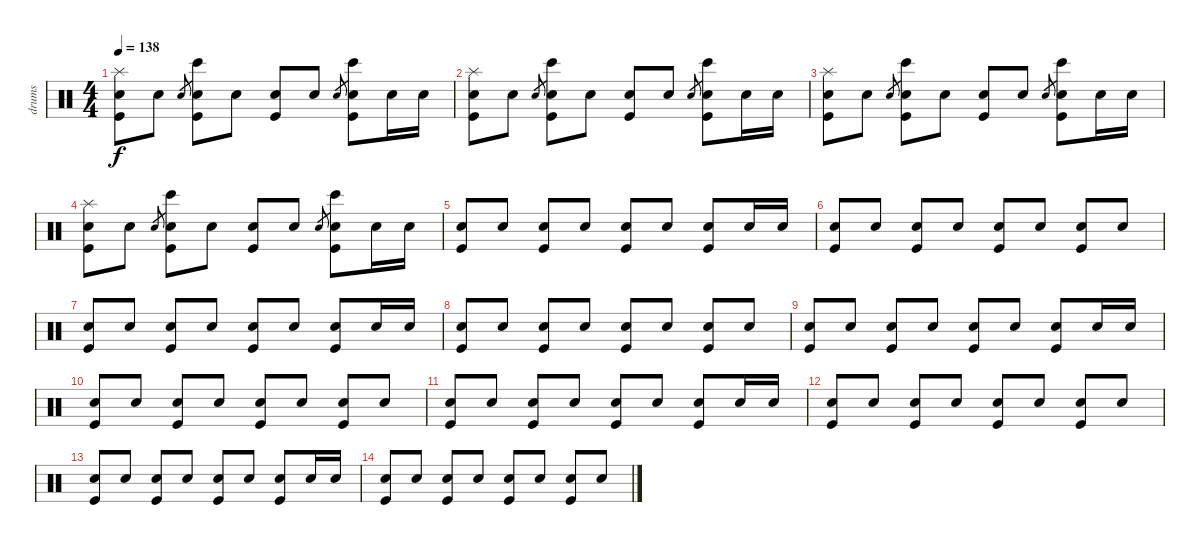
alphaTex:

\track ("drums" "drums") {instrument percussion}
\staff {score}
\articulation defaults
\ts (4 4)
\tempo 138
\clef neutral
\ks c
("Splash (hit)" "Snare (hit) 2" "Kick (hit)").8{dy f volume 11} "Snare (hit) 2".8 "Snare (hit)".8{gr} ("Bongo High (hit)" "Snare (hit) 2" "Kick (hit)").8 "Snare (hit) 2".8 ("Snare (hit) 2" "Kick (hit)").8 "Snare (hit) 2".8 "Snare (hit)".8{gr} ("Bongo High (hit)" "Snare (hit) 2" "Kick (hit)").8 "Snare (hit) 2".16 "Snare (hit) 2".16 |
("Splash (hit)" "Snare (hit) 2" "Kick (hit)").8{volume 11} "Snare (hit) 2".8 "Snare (hit)".8{gr} ("Bongo High (hit)" "Snare (hit) 2" "Kick (hit)").8 "Snare (hit) 2".8 ("Snare (hit) 2" "Kick (hit)").8 "Snare (hit) 2".8 "Snare (hit)".8{gr} ("Bongo High (hit)" "Snare (hit) 2" "Kick (hit)").8 "Snare (hit) 2".16 "Snare (hit) 2".16 |
("Splash (hit)" "Snare (hit) 2" "Kick (hit)").8{volume 11} "Snare (hit) 2".8 "Snare (hit)".8{gr} ("Bongo High (hit)" "Snare (hit) 2" "Kick (hit)").8 "Snare (hit) 2".8 ("Snare (hit) 2" "Kick (hit)").8 "Snare (hit) 2".8 "Snare (hit)".8{gr} ("Bongo High (hit)" "Snare (hit) 2" "Kick (hit)").8 "Snare (hit) 2".16 "Snare (hit) 2".16 |
("Splash (hit)" "Snare (hit) 2" "Kick (hit)").8{volume 11} "Snare (hit) 2".8 "Snare (hit)".8{gr} ("Bongo High (hit)" "Snare (hit) 2" "Kick (hit)").8 "Snare (hit) 2".8 ("Snare (hit) 2" "Kick (hit)").8 "Snare (hit) 2".8 "Snare (hit)".8{gr} ("Bongo High (hit)" "Snare (hit) 2" "Kick (hit)").8 "Snare (hit) 2".16 "Snare (hit) 2".16 |
("Snare (hit) 2" "Kick (hit)").8 "Snare (hit) 2".8 ("Snare (hit) 2" "Kick (hit)").8 "Snare (hit) 2".8 ("Snare (hit) 2" "Kick (hit)").8 "Snare (hit) 2".8 ("Snare (hit) 2" "Kick (hit)").8 "Snare (hit) 2".16{volume 11} "Snare (hit) 2".16 |
("Snare (hit) 2" "Kick (hit)").8 "Snare (hit) 2".8 ("Snare (hit) 2" "Kick (hit)").8 "Snare (hit) 2".8 ("Snare (hit) 2" "Kick (hit)").8 "Snare (hit) 2".8 ("Snare (hit) 2" "Kick (hit)").8 "Snare (hit) 2".8 |
("Snare (hit) 2" "Kick (hit)").8 "Snare (hit) 2".8 ("Snare (hit) 2" "Kick (hit)").8 "Snare (hit) 2".8 ("Snare (hit) 2" "Kick (hit)").8 "Snare (hit) 2".8 ("Snare (hit) 2" "Kick (hit)").8 "Snare (hit) 2".16{volume 11} "Snare (hit) 2".16 |
("Snare (hit) 2" "Kick (hit)").8 "Snare (hit) 2".8 ("Snare (hit) 2" "Kick (hit)").8 "Snare (hit) 2".8 ("Snare (hit) 2" "Kick (hit)").8 "Snare (hit) 2".8 ("Snare (hit) 2" "Kick (hit)").8 "Snare (hit) 2".8 |
("Snare (hit) 2" "Kick (hit)").8 "Snare (hit) 2".8 ("Snare (hit) 2" "Kick (hit)").8 "Snare (hit) 2".8 ("Snare (hit) 2" "Kick (hit)").8 "Snare (hit) 2".8 ("Snare (hit) 2" "Kick (hit)").8 "Snare (hit) 2".16{volume 11} "Snare (hit) 2".16 |
("Snare (hit) 2" "Kick (hit)").8 "Snare (hit) 2".8 ("Snare (hit) 2" "Kick (hit)").8 "Snare (hit) 2".8 ("Snare (hit) 2" "Kick (hit)").8 "Snare (hit) 2".8 ("Snare (hit) 2" "Kick (hit)").8 "Snare (hit) 2".8 |
("Snare (hit) 2" "Kick (hit)").8 "Snare (hit) 2".8 ("Snare (hit) 2" "Kick (hit)").8 "Snare (hit) 2".8 ("Snare (hit) 2" "Kick (hit)").8 "Snare (hit) 2".8 ("Snare (hit) 2" "Kick (hit)").8 "Snare (hit) 2".16{volume 11} "Snare (hit) 2".16 |
("Snare (hit) 2" "Kick (hit)").8 "Snare (hit) 2".8 ("Snare (hit) 2" "Kick (hit)").8 "Snare (hit) 2".8 ("Snare (hit) 2" "Kick (hit)").8 "Snare (hit) 2".8 ("Snare (hit) 2" "Kick (hit)").8 "Snare (hit) 2".8 |
("Snare (hit) 2" "Kick (hit)").8 "Snare (hit) 2".8 ("Snare (hit) 2" "Kick (hit)").8 "Snare (hit) 2".8 ("Snare (hit) 2" "Kick (hit)").8 "Snare (hit) 2".8 ("Snare (hit) 2" "Kick (hit)").8 "Snare (hit) 2".16{volume 11} "Snare (hit) 2".16 |
("Snare (hit) 2" "Kick (hit)").8 "Snare (hit) 2".8 ("Snare (hit) 2" "Kick (hit)").8 "Snare (hit) 2".8 ("Snare (hit) 2" "Kick (hit)").8 "Snare (hit) 2".8 ("Snare (hit) 2" "Kick (hit)").8 "Snare (hit) 2".8
